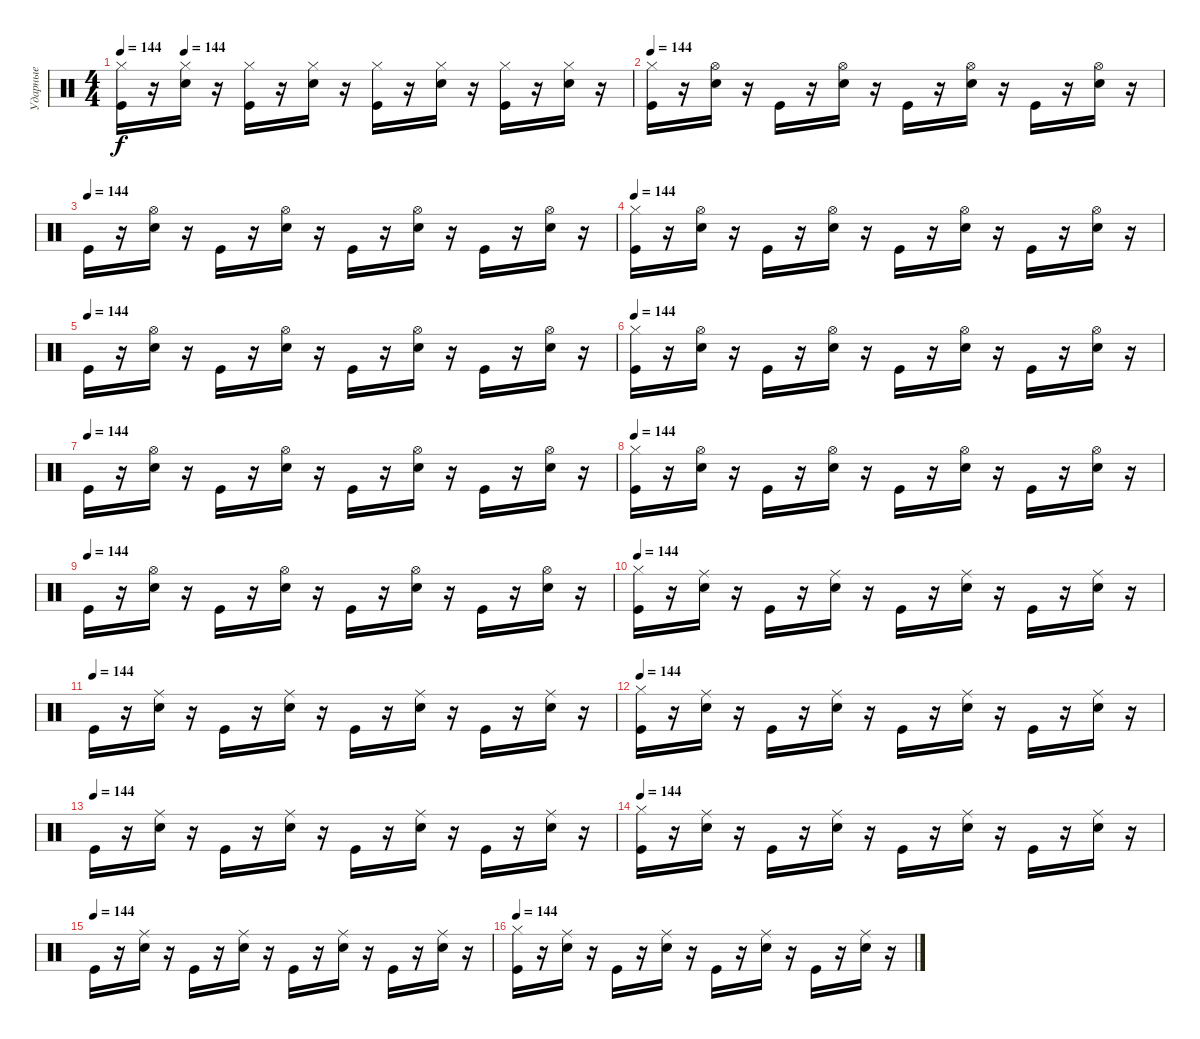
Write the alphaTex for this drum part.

\track ("Ударные" "Ударные") {instrument percussion}
\staff {score}
\articulation defaults
\ts (4 4)
\tempo 144
\tempo (144 0.125)
\clef neutral
\ks c
("Kick (hit)" "Hi-Hat (closed)").16{dy f} r.16 ("Hi-Hat (closed)" "Snare (hit) 2").16 r.16 ("Kick (hit)" "Hi-Hat (closed)").16 r.16 ("Hi-Hat (closed)" "Snare (hit) 2").16 r.16 ("Kick (hit)" "Hi-Hat (closed)").16 r.16 ("Hi-Hat (closed)" "Snare (hit) 2").16 r.16 ("Kick (hit)" "Hi-Hat (closed)").16 r.16 ("Hi-Hat (closed)" "Snare (hit) 2").16 r.16 |
\tempo 144
("Kick (hit)" "Hi-Hat (closed)").16 r.16 ("Snare (hit) 2" "Hi-Hat (open)").16 r.16 "Kick (hit)".16 r.16 ("Snare (hit) 2" "Hi-Hat (open)").16 r.16 "Kick (hit)".16 r.16 ("Snare (hit) 2" "Hi-Hat (open)").16 r.16 "Kick (hit)".16 r.16 ("Snare (hit) 2" "Hi-Hat (open)").16 r.16 |
\tempo (144)
"Kick (hit)".16 r.16 ("Snare (hit) 2" "Hi-Hat (open)").16 r.16 "Kick (hit)".16 r.16 ("Snare (hit) 2" "Hi-Hat (open)").16 r.16 "Kick (hit)".16 r.16 ("Snare (hit) 2" "Hi-Hat (open)").16 r.16 "Kick (hit)".16 r.16 ("Snare (hit) 2" "Hi-Hat (open)").16 r.16 |
\tempo 144
("Kick (hit)" "Hi-Hat (closed)").16 r.16 ("Snare (hit) 2" "Hi-Hat (open)").16 r.16 "Kick (hit)".16 r.16 ("Snare (hit) 2" "Hi-Hat (open)").16 r.16 "Kick (hit)".16 r.16 ("Snare (hit) 2" "Hi-Hat (open)").16 r.16 "Kick (hit)".16 r.16 ("Snare (hit) 2" "Hi-Hat (open)").16 r.16 |
\tempo (144)
"Kick (hit)".16 r.16 ("Snare (hit) 2" "Hi-Hat (open)").16 r.16 "Kick (hit)".16 r.16 ("Snare (hit) 2" "Hi-Hat (open)").16 r.16 "Kick (hit)".16 r.16 ("Snare (hit) 2" "Hi-Hat (open)").16 r.16 "Kick (hit)".16 r.16 ("Snare (hit) 2" "Hi-Hat (open)").16 r.16 |
\tempo 144
("Kick (hit)" "Hi-Hat (closed)").16 r.16 ("Snare (hit) 2" "Hi-Hat (open)").16 r.16 "Kick (hit)".16 r.16 ("Snare (hit) 2" "Hi-Hat (open)").16 r.16 "Kick (hit)".16 r.16 ("Snare (hit) 2" "Hi-Hat (open)").16 r.16 "Kick (hit)".16 r.16 ("Snare (hit) 2" "Hi-Hat (open)").16 r.16 |
\tempo (144)
"Kick (hit)".16 r.16 ("Snare (hit) 2" "Hi-Hat (open)").16 r.16 "Kick (hit)".16 r.16 ("Snare (hit) 2" "Hi-Hat (open)").16 r.16 "Kick (hit)".16 r.16 ("Snare (hit) 2" "Hi-Hat (open)").16 r.16 "Kick (hit)".16 r.16 ("Snare (hit) 2" "Hi-Hat (open)").16 r.16 |
\tempo 144
("Kick (hit)" "Hi-Hat (closed)").16 r.16 ("Snare (hit) 2" "Hi-Hat (open)").16 r.16 "Kick (hit)".16 r.16 ("Snare (hit) 2" "Hi-Hat (open)").16 r.16 "Kick (hit)".16 r.16 ("Snare (hit) 2" "Hi-Hat (open)").16 r.16 "Kick (hit)".16 r.16 ("Snare (hit) 2" "Hi-Hat (open)").16 r.16 |
\tempo (144)
"Kick (hit)".16 r.16 ("Snare (hit) 2" "Hi-Hat (open)").16 r.16 "Kick (hit)".16 r.16 ("Snare (hit) 2" "Hi-Hat (open)").16 r.16 "Kick (hit)".16 r.16 ("Snare (hit) 2" "Hi-Hat (open)").16 r.16 "Kick (hit)".16 r.16 ("Snare (hit) 2" "Hi-Hat (open)").16 r.16 |
\tempo 144
("Kick (hit)" "Hi-Hat (closed)").16 r.16 ("Snare (hit) 2" "Ride (middle)").16 r.16 "Kick (hit)".16 r.16 ("Snare (hit) 2" "Ride (middle)").16 r.16 "Kick (hit)".16 r.16 ("Snare (hit) 2" "Ride (middle)").16 r.16 "Kick (hit)".16 r.16 ("Snare (hit) 2" "Ride (middle)").16 r.16 |
\tempo (144)
"Kick (hit)".16 r.16 ("Snare (hit) 2" "Ride (middle)").16 r.16 "Kick (hit)".16 r.16 ("Snare (hit) 2" "Ride (middle)").16 r.16 "Kick (hit)".16 r.16 ("Snare (hit) 2" "Ride (middle)").16 r.16 "Kick (hit)".16 r.16 ("Snare (hit) 2" "Ride (middle)").16 r.16 |
\tempo 144
("Kick (hit)" "Hi-Hat (closed)").16 r.16 ("Snare (hit) 2" "Ride (middle)").16 r.16 "Kick (hit)".16 r.16 ("Snare (hit) 2" "Ride (middle)").16 r.16 "Kick (hit)".16 r.16 ("Snare (hit) 2" "Ride (middle)").16 r.16 "Kick (hit)".16 r.16 ("Snare (hit) 2" "Ride (middle)").16 r.16 |
\tempo (144)
"Kick (hit)".16 r.16 ("Snare (hit) 2" "Ride (middle)").16 r.16 "Kick (hit)".16 r.16 ("Snare (hit) 2" "Ride (middle)").16 r.16 "Kick (hit)".16 r.16 ("Snare (hit) 2" "Ride (middle)").16 r.16 "Kick (hit)".16 r.16 ("Snare (hit) 2" "Ride (middle)").16 r.16 |
\tempo 144
("Kick (hit)" "Hi-Hat (closed)").16 r.16 ("Snare (hit) 2" "Ride (middle)").16 r.16 "Kick (hit)".16 r.16 ("Snare (hit) 2" "Ride (middle)").16 r.16 "Kick (hit)".16 r.16 ("Snare (hit) 2" "Ride (middle)").16 r.16 "Kick (hit)".16 r.16 ("Snare (hit) 2" "Ride (middle)").16 r.16 |
\tempo (144)
"Kick (hit)".16 r.16 ("Snare (hit) 2" "Ride (middle)").16 r.16 "Kick (hit)".16 r.16 ("Snare (hit) 2" "Ride (middle)").16 r.16 "Kick (hit)".16 r.16 ("Snare (hit) 2" "Ride (middle)").16 r.16 "Kick (hit)".16 r.16 ("Snare (hit) 2" "Ride (middle)").16 r.16 |
\tempo 144
("Kick (hit)" "Hi-Hat (closed)").16 r.16 ("Snare (hit) 2" "Ride (middle)").16 r.16 "Kick (hit)".16 r.16 ("Snare (hit) 2" "Ride (middle)").16 r.16 "Kick (hit)".16 r.16 ("Snare (hit) 2" "Ride (middle)").16 r.16 "Kick (hit)".16 r.16 ("Snare (hit) 2" "Ride (middle)").16 r.16
